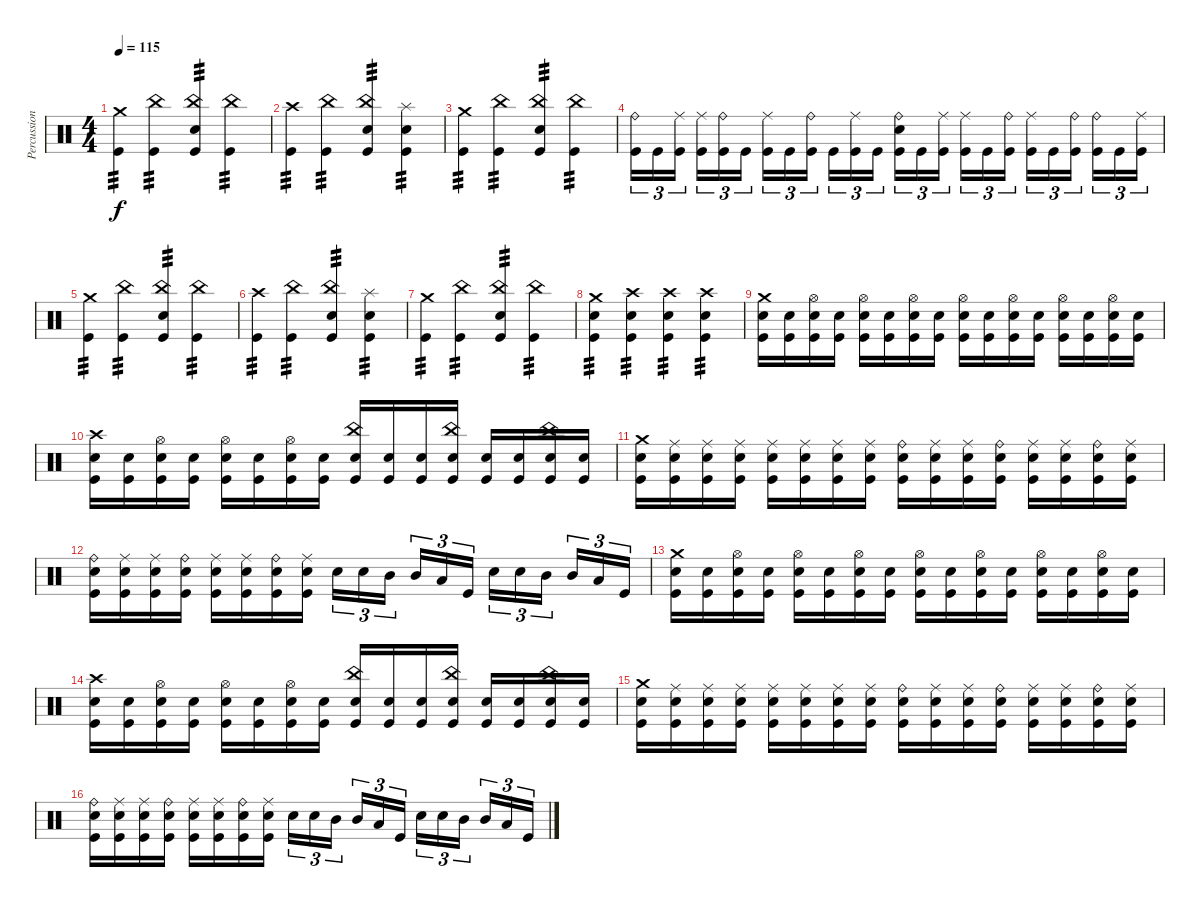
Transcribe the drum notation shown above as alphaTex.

\track ("Percussion" "Percussion") {instrument percussion}
\staff {score}
\articulation defaults
\ts (4 4)
\tempo 115
\clef neutral
\ks c
("Crash medium (hit)" "Kick (hit)").4{tp 3 dy f} ("China (hit)" "Kick (hit)").4{tp 3} ("China (hit)" "Electric Snare (hit)" "Kick (hit)").4{tp 3} ("China (hit)" "Kick (hit)").4{tp 3} |
("Crash high (hit)" "Kick (hit)").4{tp 3} ("China (hit)" "Kick (hit)").4{tp 3} ("China (hit)" "Electric Snare (hit)" "Kick (hit)").4{tp 3} ("Splash (hit)" "Electric Snare (hit)" "Kick (hit)").4{tp 3} |
("Crash medium (hit)" "Kick (hit)").4{tp 3} ("China (hit)" "Kick (hit)").4{tp 3} ("China (hit)" "Electric Snare (hit)" "Kick (hit)").4{tp 3} ("China (hit)" "Kick (hit)").4{tp 3} |
("Ride (bell)" "Kick (hit)").16{tu (3 2)} "Kick (hit)".16{tu (3 2)} ("Ride (middle)" "Kick (hit)").16{tu (3 2) beam splitsecondary} ("Ride (middle)" "Kick (hit)").16{tu (3 2)} ("Ride (bell)" "Kick (hit)").16{tu (3 2)} "Kick (hit)".16{tu (3 2)} ("Ride (middle)" "Kick (hit)").16{tu (3 2)} "Kick (hit)".16{tu (3 2)} ("Ride (bell)" "Kick (hit)").16{tu (3 2) beam splitsecondary} "Kick (hit)".16{tu (3 2)} ("Ride (middle)" "Kick (hit)").16{tu (3 2)} "Kick (hit)".16{tu (3 2)} ("Ride (bell)" "Electric Snare (hit)" "Kick (hit)").16{tu (3 2)} "Kick (hit)".16{tu (3 2)} ("Ride (middle)" "Kick (hit)").16{tu (3 2) beam splitsecondary} ("Ride (middle)" "Kick (hit)").16{tu (3 2)} "Kick (hit)".16{tu (3 2)} ("Ride (bell)" "Kick (hit)").16{tu (3 2)} ("Ride (middle)" "Kick (hit)").16{tu (3 2)} "Kick (hit)".16{tu (3 2)} ("Ride (bell)" "Kick (hit)").16{tu (3 2) beam splitsecondary} ("Ride (bell)" "Kick (hit)").16{tu (3 2)} "Kick (hit)".16{tu (3 2)} ("Ride (middle)" "Kick (hit)").16{tu (3 2)} |
("Crash medium (hit)" "Kick (hit)").4{tp 3} ("China (hit)" "Kick (hit)").4{tp 3} ("China (hit)" "Electric Snare (hit)" "Kick (hit)").4{tp 3} ("China (hit)" "Kick (hit)").4{tp 3} |
("Crash high (hit)" "Kick (hit)").4{tp 3} ("China (hit)" "Kick (hit)").4{tp 3} ("China (hit)" "Electric Snare (hit)" "Kick (hit)").4{tp 3} ("Splash (hit)" "Electric Snare (hit)" "Kick (hit)").4{tp 3} |
("Crash medium (hit)" "Kick (hit)").4{tp 3} ("China (hit)" "Kick (hit)").4{tp 3} ("China (hit)" "Electric Snare (hit)" "Kick (hit)").4{tp 3} ("China (hit)" "Kick (hit)").4{tp 3} |
("Crash medium (hit)" "Electric Snare (hit)" "Kick (hit)").4{tp 3} ("Crash high (hit)" "Electric Snare (hit)" "Kick (hit)").4{tp 3} ("Crash high (hit)" "Electric Snare (hit)" "Kick (hit)").4{tp 3} ("Crash high (hit)" "Electric Snare (hit)" "Kick (hit)").4{tp 3} |
("Crash medium (hit)" "Electric Snare (hit)" "Kick (hit)").16 ("Electric Snare (hit)" "Kick (hit)").16 ("Hi-Hat (open)" "Electric Snare (hit)" "Kick (hit)").16 ("Electric Snare (hit)" "Kick (hit)").16 ("Hi-Hat (open)" "Electric Snare (hit)" "Kick (hit)").16 ("Electric Snare (hit)" "Kick (hit)").16 ("Hi-Hat (open)" "Electric Snare (hit)" "Kick (hit)").16 ("Electric Snare (hit)" "Kick (hit)").16 ("Hi-Hat (open)" "Electric Snare (hit)" "Kick (hit)").16 ("Electric Snare (hit)" "Kick (hit)").16 ("Hi-Hat (open)" "Electric Snare (hit)" "Kick (hit)").16 ("Electric Snare (hit)" "Kick (hit)").16 ("Hi-Hat (open)" "Electric Snare (hit)" "Kick (hit)").16 ("Electric Snare (hit)" "Kick (hit)").16 ("Hi-Hat (open)" "Electric Snare (hit)" "Kick (hit)").16 ("Electric Snare (hit)" "Kick (hit)").16 |
("Crash high (hit)" "Electric Snare (hit)" "Kick (hit)").16 ("Electric Snare (hit)" "Kick (hit)").16 ("Hi-Hat (open)" "Electric Snare (hit)" "Kick (hit)").16 ("Electric Snare (hit)" "Kick (hit)").16 ("Hi-Hat (open)" "Electric Snare (hit)" "Kick (hit)").16 ("Electric Snare (hit)" "Kick (hit)").16 ("Hi-Hat (open)" "Electric Snare (hit)" "Kick (hit)").16 ("Electric Snare (hit)" "Kick (hit)").16 ("China (hit)" "Electric Snare (hit)" "Kick (hit)").16 ("Electric Snare (hit)" "Kick (hit)").16 ("Electric Snare (hit)" "Kick (hit)").16 ("China (hit)" "Electric Snare (hit)" "Kick (hit)").16 ("Electric Snare (hit)" "Kick (hit)").16 ("Electric Snare (hit)" "Kick (hit)").16 ("China (hit)" "Electric Snare (hit)" "Kick (hit)").16 ("Electric Snare (hit)" "Kick (hit)").16 |
("Crash medium (hit)" "Electric Snare (hit)" "Kick (hit)").16 ("Ride (middle)" "Electric Snare (hit)" "Kick (hit)").16 ("Ride (middle)" "Electric Snare (hit)" "Kick (hit)").16 ("Ride (middle)" "Electric Snare (hit)" "Kick (hit)").16 ("Ride (middle)" "Electric Snare (hit)" "Kick (hit)").16 ("Ride (middle)" "Electric Snare (hit)" "Kick (hit)").16 ("Ride (middle)" "Electric Snare (hit)" "Kick (hit)").16 ("Ride (middle)" "Electric Snare (hit)" "Kick (hit)").16 ("Ride (bell)" "Electric Snare (hit)" "Kick (hit)").16 ("Ride (middle)" "Electric Snare (hit)" "Kick (hit)").16 ("Ride (middle)" "Electric Snare (hit)" "Kick (hit)").16 ("Ride (bell)" "Electric Snare (hit)" "Kick (hit)").16 ("Ride (middle)" "Electric Snare (hit)" "Kick (hit)").16 ("Ride (middle)" "Electric Snare (hit)" "Kick (hit)").16 ("Ride (bell)" "Electric Snare (hit)" "Kick (hit)").16 ("Ride (middle)" "Electric Snare (hit)" "Kick (hit)").16 |
("Ride (bell)" "Electric Snare (hit)" "Kick (hit)").16 ("Ride (middle)" "Electric Snare (hit)" "Kick (hit)").16 ("Ride (middle)" "Electric Snare (hit)" "Kick (hit)").16 ("Ride (bell)" "Electric Snare (hit)" "Kick (hit)").16 ("Ride (middle)" "Electric Snare (hit)" "Kick (hit)").16 ("Ride (middle)" "Electric Snare (hit)" "Kick (hit)").16 ("Ride (bell)" "Electric Snare (hit)" "Kick (hit)").16 ("Ride (middle)" "Electric Snare (hit)" "Kick (hit)").16 "Electric Snare (hit)".16{tu (3 2)} "Electric Snare (hit)".16{tu (3 2)} "Mid Tom (hit)".16{tu (3 2) beam splitsecondary} "Mid Tom (hit)".16{tu (3 2)} "Low Tom (hit)".16{tu (3 2)} "Kick (hit)".16{tu (3 2)} "Electric Snare (hit)".16{tu (3 2)} "Electric Snare (hit)".16{tu (3 2)} "Mid Tom (hit)".16{tu (3 2) beam splitsecondary} "Mid Tom (hit)".16{tu (3 2)} "Low Tom (hit)".16{tu (3 2)} "Kick (hit)".16{tu (3 2)} |
("Crash medium (hit)" "Electric Snare (hit)" "Kick (hit)").16 ("Electric Snare (hit)" "Kick (hit)").16 ("Hi-Hat (open)" "Electric Snare (hit)" "Kick (hit)").16 ("Electric Snare (hit)" "Kick (hit)").16 ("Hi-Hat (open)" "Electric Snare (hit)" "Kick (hit)").16 ("Electric Snare (hit)" "Kick (hit)").16 ("Hi-Hat (open)" "Electric Snare (hit)" "Kick (hit)").16 ("Electric Snare (hit)" "Kick (hit)").16 ("Hi-Hat (open)" "Electric Snare (hit)" "Kick (hit)").16 ("Electric Snare (hit)" "Kick (hit)").16 ("Hi-Hat (open)" "Electric Snare (hit)" "Kick (hit)").16 ("Electric Snare (hit)" "Kick (hit)").16 ("Hi-Hat (open)" "Electric Snare (hit)" "Kick (hit)").16 ("Electric Snare (hit)" "Kick (hit)").16 ("Hi-Hat (open)" "Electric Snare (hit)" "Kick (hit)").16 ("Electric Snare (hit)" "Kick (hit)").16 |
("Crash high (hit)" "Electric Snare (hit)" "Kick (hit)").16 ("Electric Snare (hit)" "Kick (hit)").16 ("Hi-Hat (open)" "Electric Snare (hit)" "Kick (hit)").16 ("Electric Snare (hit)" "Kick (hit)").16 ("Hi-Hat (open)" "Electric Snare (hit)" "Kick (hit)").16 ("Electric Snare (hit)" "Kick (hit)").16 ("Hi-Hat (open)" "Electric Snare (hit)" "Kick (hit)").16 ("Electric Snare (hit)" "Kick (hit)").16 ("China (hit)" "Electric Snare (hit)" "Kick (hit)").16 ("Electric Snare (hit)" "Kick (hit)").16 ("Electric Snare (hit)" "Kick (hit)").16 ("China (hit)" "Electric Snare (hit)" "Kick (hit)").16 ("Electric Snare (hit)" "Kick (hit)").16 ("Electric Snare (hit)" "Kick (hit)").16 ("China (hit)" "Electric Snare (hit)" "Kick (hit)").16 ("Electric Snare (hit)" "Kick (hit)").16 |
("Crash medium (hit)" "Electric Snare (hit)" "Kick (hit)").16 ("Ride (middle)" "Electric Snare (hit)" "Kick (hit)").16 ("Ride (middle)" "Electric Snare (hit)" "Kick (hit)").16 ("Ride (middle)" "Electric Snare (hit)" "Kick (hit)").16 ("Ride (middle)" "Electric Snare (hit)" "Kick (hit)").16 ("Ride (middle)" "Electric Snare (hit)" "Kick (hit)").16 ("Ride (middle)" "Electric Snare (hit)" "Kick (hit)").16 ("Ride (middle)" "Electric Snare (hit)" "Kick (hit)").16 ("Ride (bell)" "Electric Snare (hit)" "Kick (hit)").16 ("Ride (middle)" "Electric Snare (hit)" "Kick (hit)").16 ("Ride (middle)" "Electric Snare (hit)" "Kick (hit)").16 ("Ride (bell)" "Electric Snare (hit)" "Kick (hit)").16 ("Ride (middle)" "Electric Snare (hit)" "Kick (hit)").16 ("Ride (middle)" "Electric Snare (hit)" "Kick (hit)").16 ("Ride (bell)" "Electric Snare (hit)" "Kick (hit)").16 ("Ride (middle)" "Electric Snare (hit)" "Kick (hit)").16 |
("Ride (bell)" "Electric Snare (hit)" "Kick (hit)").16 ("Ride (middle)" "Electric Snare (hit)" "Kick (hit)").16 ("Ride (middle)" "Electric Snare (hit)" "Kick (hit)").16 ("Ride (bell)" "Electric Snare (hit)" "Kick (hit)").16 ("Ride (middle)" "Electric Snare (hit)" "Kick (hit)").16 ("Ride (middle)" "Electric Snare (hit)" "Kick (hit)").16 ("Ride (bell)" "Electric Snare (hit)" "Kick (hit)").16 ("Ride (middle)" "Electric Snare (hit)" "Kick (hit)").16 "Electric Snare (hit)".16{tu (3 2)} "Electric Snare (hit)".16{tu (3 2)} "Mid Tom (hit)".16{tu (3 2) beam splitsecondary} "Mid Tom (hit)".16{tu (3 2)} "Low Tom (hit)".16{tu (3 2)} "Kick (hit)".16{tu (3 2)} "Electric Snare (hit)".16{tu (3 2)} "Electric Snare (hit)".16{tu (3 2)} "Mid Tom (hit)".16{tu (3 2) beam splitsecondary} "Mid Tom (hit)".16{tu (3 2)} "Low Tom (hit)".16{tu (3 2)} "Kick (hit)".16{tu (3 2)}
